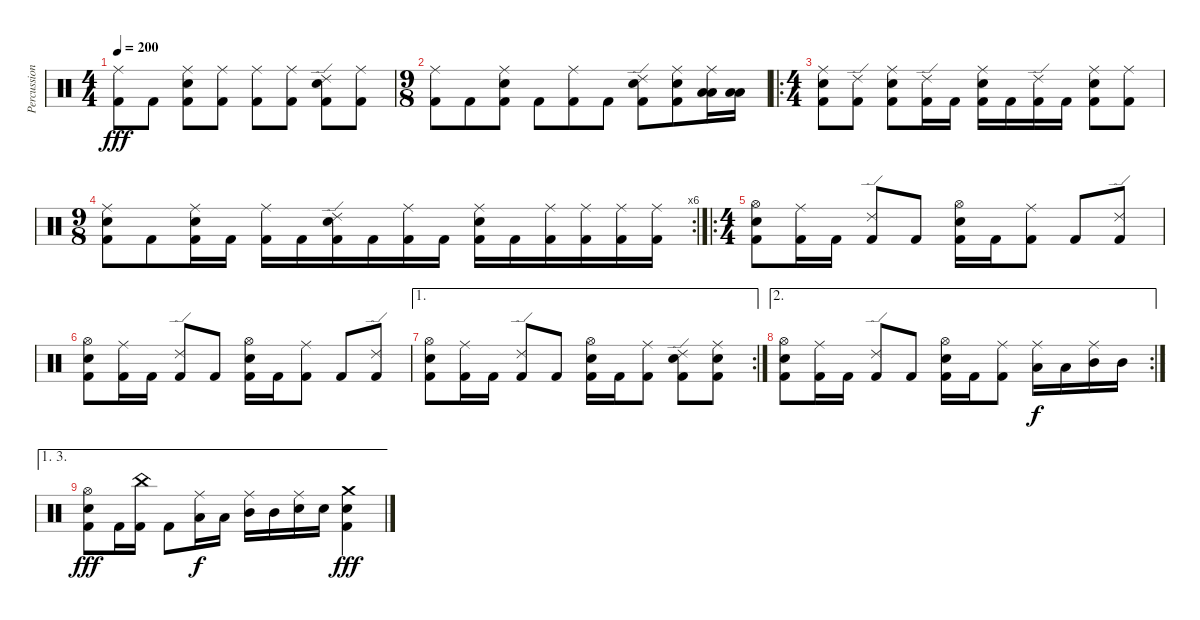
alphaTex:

\track ("Percussion" "Percussion") {instrument percussion}
\staff {score}
\articulation defaults
\ts (4 4)
\tempo 200
\clef neutral
\ks c
("Ride (middle)" "Kick (hit) 2").8{dy fff} "Kick (hit) 2".8 ("Ride (middle)" "Electric Snare (hit)" "Kick (hit) 2").8 ("Ride (middle)" "Kick (hit) 2").8 ("Ride (middle)" "Kick (hit) 2").8 ("Ride (middle)" "Kick (hit) 2").8 ("Ride (edge) 2" "Electric Snare (hit)" "Kick (hit) 2").8 ("Ride (middle)" "Kick (hit) 2").8 |
\ts (9 8)
("Ride (middle)" "Kick (hit) 2").8 "Kick (hit) 2".8 ("Ride (middle)" "Electric Snare (hit)" "Kick (hit) 2").8 "Kick (hit) 2".8 ("Ride (middle)" "Kick (hit) 2").8 "Kick (hit) 2".8 ("Ride (edge) 2" "Electric Snare (hit)" "Kick (hit) 2").8 ("Ride (middle)" "Electric Snare (hit)" "Kick (hit) 2").8 ("Ride (middle)" "Low Tom (hit)" "Low Tom (hit)").16 ("Low Tom (hit)" "Low Tom (hit)").16 |
\ro
\ts (4 4)
("Ride (middle)" "Electric Snare (hit)" "Kick (hit) 2").8 ("Ride (edge) 2" "Kick (hit) 2").8 ("Ride (middle)" "Electric Snare (hit)" "Kick (hit) 2").8 ("Ride (edge) 2" "Kick (hit) 2").16 "Kick (hit) 2".16 ("Ride (middle)" "Electric Snare (hit)" "Kick (hit) 2").16 "Kick (hit) 2".16 ("Ride (edge) 2" "Kick (hit) 2").16 "Kick (hit) 2".16 ("Ride (middle)" "Electric Snare (hit)" "Kick (hit) 2").8 ("Ride (middle)" "Kick (hit) 2").8 |
\rc 6
\ts (9 8)
("Ride (middle)" "Electric Snare (hit)" "Kick (hit) 2").8 "Kick (hit) 2".8 ("Ride (middle)" "Electric Snare (hit)" "Kick (hit) 2").16 "Kick (hit) 2".16 ("Ride (middle)" "Kick (hit) 2").16 "Kick (hit) 2".16 ("Ride (edge) 2" "Electric Snare (hit)" "Kick (hit) 2").16 "Kick (hit) 2".16 ("Ride (middle)" "Kick (hit) 2").16 "Kick (hit) 2".16 ("Ride (middle)" "Electric Snare (hit)" "Kick (hit) 2").16 "Kick (hit) 2".16 ("Ride (middle)" "Kick (hit) 2").16 ("Ride (middle)" "Kick (hit) 2").16 ("Ride (middle)" "Kick (hit) 2").16 ("Ride (middle)" "Kick (hit) 2").16 |
\ro
\ts (4 4)
("Hi-Hat (open)" "Electric Snare (hit)" "Kick (hit) 2").8 ("Ride (middle)" "Kick (hit) 2").16 "Kick (hit) 2".16 ("Ride (edge) 2" "Kick (hit) 2").8 "Kick (hit) 2".8 ("Hi-Hat (open)" "Electric Snare (hit)" "Kick (hit) 2").16 "Kick (hit) 2".16 ("Ride (middle)" "Kick (hit) 2").8 "Kick (hit) 2".8 ("Ride (edge) 2" "Kick (hit) 2").8 |
("Hi-Hat (open)" "Electric Snare (hit)" "Kick (hit) 2").8 ("Ride (middle)" "Kick (hit) 2").16 "Kick (hit) 2".16 ("Ride (edge) 2" "Kick (hit) 2").8 "Kick (hit) 2".8 ("Hi-Hat (open)" "Electric Snare (hit)" "Kick (hit) 2").16 "Kick (hit) 2".16 ("Ride (middle)" "Kick (hit) 2").8 "Kick (hit) 2".8 ("Ride (edge) 2" "Kick (hit) 2").8 |
\ae 1
\rc 2
("Hi-Hat (open)" "Electric Snare (hit)" "Kick (hit) 2").8 ("Ride (middle)" "Kick (hit) 2").16 "Kick (hit) 2".16 ("Ride (edge) 2" "Kick (hit) 2").8 "Kick (hit) 2".8 ("Hi-Hat (open)" "Electric Snare (hit)" "Kick (hit) 2").16 "Kick (hit) 2".16 ("Ride (middle)" "Kick (hit) 2").8 ("Ride (edge) 2" "Electric Snare (hit)" "Kick (hit) 2").8 ("Ride (middle)" "Electric Snare (hit)" "Kick (hit) 2").8 |
\ae 2
\rc 2
("Hi-Hat (open)" "Electric Snare (hit)" "Kick (hit) 2").8 ("Ride (middle)" "Kick (hit) 2").16 "Kick (hit) 2".16 ("Ride (edge) 2" "Kick (hit) 2").8 "Kick (hit) 2".8 ("Hi-Hat (open)" "Electric Snare (hit)" "Kick (hit) 2").16 "Kick (hit) 2".16 ("Ride (middle)" "Kick (hit) 2").8 ("Ride (middle)" "Low Tom (hit)").16{dy f} "Low Tom (hit)".16 ("Ride (middle)" "Mid Tom (hit)").16 "Mid Tom (hit)".16 |
\ae (1 3)
("Hi-Hat (open)" "Electric Snare (hit)" "Kick (hit) 2").8{dy fff} "Kick (hit) 2".16 ("China (hit)" "Kick (hit) 2").16 "Kick (hit) 2".8 ("Ride (middle)" "Low Tom (hit)").16{dy f} "Low Tom (hit)".16 ("Ride (middle)" "Mid Tom (hit)").16 "Mid Tom (hit)".16 ("Ride (middle)" "Electric Snare (hit)").16 "Electric Snare (hit)".16 ("Crash medium (hit)" "Electric Snare (hit)" "Kick (hit) 2").4{dy fff}
